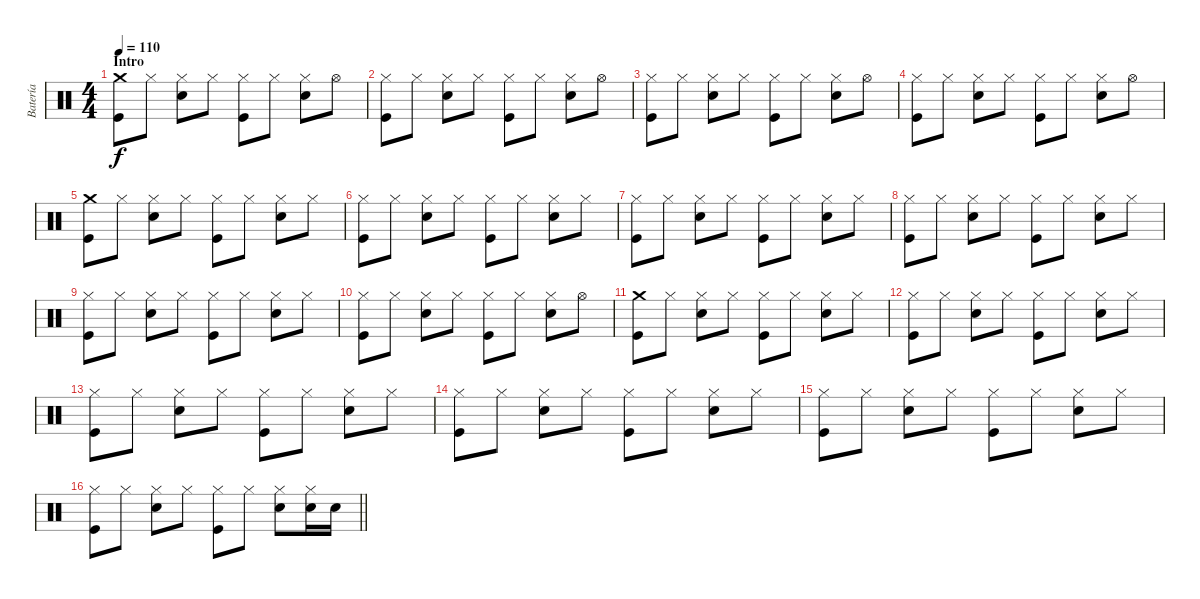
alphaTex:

\track ("Batería" "Batería") {instrument percussion}
\staff {score}
\articulation defaults
\ts (4 4)
\section ("" "Intro")
\tempo 110
\clef neutral
\ks c
("Crash medium (hit)" "Kick (hit)").8{dy f} "Hi-Hat (closed)".8 ("Hi-Hat (closed)" "Snare (hit) 2").8 "Hi-Hat (closed)".8 ("Hi-Hat (closed)" "Kick (hit)").8 "Hi-Hat (closed)".8 ("Hi-Hat (closed)" "Snare (hit) 2").8 "Hi-Hat (open)".8 |
("Hi-Hat (closed)" "Kick (hit)").8 "Hi-Hat (closed)".8 ("Hi-Hat (closed)" "Snare (hit) 2").8 "Hi-Hat (closed)".8 ("Hi-Hat (closed)" "Kick (hit)").8 "Hi-Hat (closed)".8 ("Hi-Hat (closed)" "Snare (hit) 2").8 "Hi-Hat (open)".8 |
("Hi-Hat (closed)" "Kick (hit)").8 "Hi-Hat (closed)".8 ("Hi-Hat (closed)" "Snare (hit) 2").8 "Hi-Hat (closed)".8 ("Hi-Hat (closed)" "Kick (hit)").8 "Hi-Hat (closed)".8 ("Hi-Hat (closed)" "Snare (hit) 2").8 "Hi-Hat (open)".8 |
("Hi-Hat (closed)" "Kick (hit)").8 "Hi-Hat (closed)".8 ("Hi-Hat (closed)" "Snare (hit) 2").8 "Hi-Hat (closed)".8 ("Hi-Hat (closed)" "Kick (hit)").8 "Hi-Hat (closed)".8 ("Hi-Hat (closed)" "Snare (hit) 2").8 "Hi-Hat (open)".8 |
("Crash medium (hit)" "Kick (hit)").8 "Hi-Hat (closed)".8 ("Hi-Hat (closed)" "Snare (hit) 2").8 "Hi-Hat (closed)".8 ("Hi-Hat (closed)" "Kick (hit)").8 "Hi-Hat (closed)".8 ("Hi-Hat (closed)" "Snare (hit) 2").8 "Hi-Hat (closed)".8 |
("Hi-Hat (closed)" "Kick (hit)").8 "Hi-Hat (closed)".8 ("Hi-Hat (closed)" "Snare (hit) 2").8 "Hi-Hat (closed)".8 ("Hi-Hat (closed)" "Kick (hit)").8 "Hi-Hat (closed)".8 ("Hi-Hat (closed)" "Snare (hit) 2").8 "Hi-Hat (closed)".8 |
("Hi-Hat (closed)" "Kick (hit)").8 "Hi-Hat (closed)".8 ("Hi-Hat (closed)" "Snare (hit) 2").8 "Hi-Hat (closed)".8 ("Hi-Hat (closed)" "Kick (hit)").8 "Hi-Hat (closed)".8 ("Hi-Hat (closed)" "Snare (hit) 2").8 "Hi-Hat (closed)".8 |
("Hi-Hat (closed)" "Kick (hit)").8 "Hi-Hat (closed)".8 ("Hi-Hat (closed)" "Snare (hit) 2").8 "Hi-Hat (closed)".8 ("Hi-Hat (closed)" "Kick (hit)").8 "Hi-Hat (closed)".8 ("Hi-Hat (closed)" "Snare (hit) 2").8 "Hi-Hat (closed)".8 |
("Hi-Hat (closed)" "Kick (hit)").8 "Hi-Hat (closed)".8 ("Hi-Hat (closed)" "Snare (hit) 2").8 "Hi-Hat (closed)".8 ("Hi-Hat (closed)" "Kick (hit)").8 "Hi-Hat (closed)".8 ("Hi-Hat (closed)" "Snare (hit) 2").8 "Hi-Hat (closed)".8 |
("Hi-Hat (closed)" "Kick (hit)").8 "Hi-Hat (closed)".8 ("Hi-Hat (closed)" "Snare (hit) 2").8 "Hi-Hat (closed)".8 ("Hi-Hat (closed)" "Kick (hit)").8 "Hi-Hat (closed)".8 ("Hi-Hat (closed)" "Snare (hit) 2").8 "Hi-Hat (open)".8 |
("Crash medium (hit)" "Kick (hit)").8 "Hi-Hat (closed)".8 ("Hi-Hat (closed)" "Snare (hit) 2").8 "Hi-Hat (closed)".8 ("Hi-Hat (closed)" "Kick (hit)").8 "Hi-Hat (closed)".8 ("Hi-Hat (closed)" "Snare (hit) 2").8 "Hi-Hat (closed)".8 |
("Hi-Hat (closed)" "Kick (hit)").8 "Hi-Hat (closed)".8 ("Hi-Hat (closed)" "Snare (hit) 2").8 "Hi-Hat (closed)".8 ("Hi-Hat (closed)" "Kick (hit)").8 "Hi-Hat (closed)".8 ("Hi-Hat (closed)" "Snare (hit) 2").8 "Hi-Hat (closed)".8 |
("Hi-Hat (closed)" "Kick (hit)").8 "Hi-Hat (closed)".8 ("Hi-Hat (closed)" "Snare (hit) 2").8 "Hi-Hat (closed)".8 ("Hi-Hat (closed)" "Kick (hit)").8 "Hi-Hat (closed)".8 ("Hi-Hat (closed)" "Snare (hit) 2").8 "Hi-Hat (closed)".8 |
("Hi-Hat (closed)" "Kick (hit)").8 "Hi-Hat (closed)".8 ("Hi-Hat (closed)" "Snare (hit) 2").8 "Hi-Hat (closed)".8 ("Hi-Hat (closed)" "Kick (hit)").8 "Hi-Hat (closed)".8 ("Hi-Hat (closed)" "Snare (hit) 2").8 "Hi-Hat (closed)".8 |
("Hi-Hat (closed)" "Kick (hit)").8 "Hi-Hat (closed)".8 ("Hi-Hat (closed)" "Snare (hit) 2").8 "Hi-Hat (closed)".8 ("Hi-Hat (closed)" "Kick (hit)").8 "Hi-Hat (closed)".8 ("Hi-Hat (closed)" "Snare (hit) 2").8 "Hi-Hat (closed)".8 |
\barLineRight lightlight
("Hi-Hat (closed)" "Kick (hit)").8 "Hi-Hat (closed)".8 ("Hi-Hat (closed)" "Snare (hit) 2").8 "Hi-Hat (closed)".8 ("Hi-Hat (closed)" "Kick (hit)").8 "Hi-Hat (closed)".8 ("Hi-Hat (closed)" "Snare (hit) 2").8 ("Hi-Hat (closed)" "Snare (hit) 2").16 "Snare (hit) 2".16
